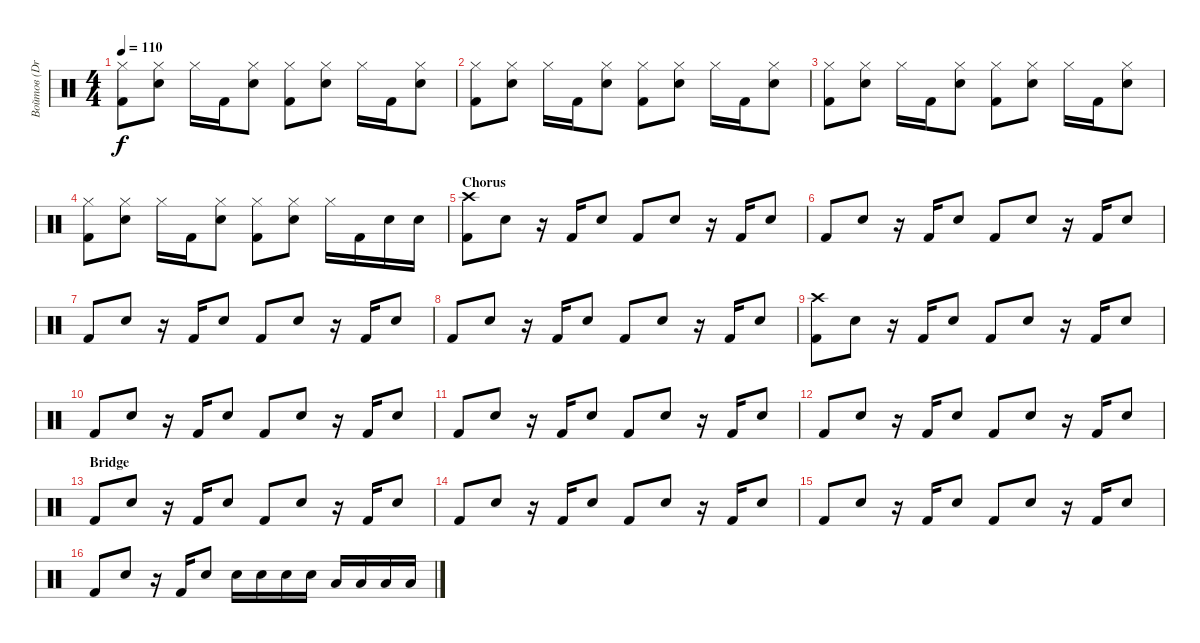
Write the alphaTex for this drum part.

\track ("Войтов (Drums)" "Войтов (Dr") {instrument percussion}
\staff {score}
\articulation defaults
\ts (4 4)
\tempo 110
\clef neutral
\ks c
("Kick (hit) 2" "Hi-Hat (closed)").8{dy f} ("Electric Snare (hit)" "Hi-Hat (closed)").8 "Hi-Hat (closed)".16 "Kick (hit) 2".16 ("Electric Snare (hit)" "Hi-Hat (closed)").8 ("Kick (hit) 2" "Hi-Hat (closed)").8 ("Electric Snare (hit)" "Hi-Hat (closed)").8 "Hi-Hat (closed)".16 "Kick (hit) 2".16 ("Electric Snare (hit)" "Hi-Hat (closed)").8 |
("Kick (hit) 2" "Hi-Hat (closed)").8 ("Electric Snare (hit)" "Hi-Hat (closed)").8 "Hi-Hat (closed)".16 "Kick (hit) 2".16 ("Electric Snare (hit)" "Hi-Hat (closed)").8 ("Kick (hit) 2" "Hi-Hat (closed)").8 ("Electric Snare (hit)" "Hi-Hat (closed)").8 "Hi-Hat (closed)".16 "Kick (hit) 2".16 ("Electric Snare (hit)" "Hi-Hat (closed)").8 |
("Kick (hit) 2" "Hi-Hat (closed)").8 ("Electric Snare (hit)" "Hi-Hat (closed)").8 "Hi-Hat (closed)".16 "Kick (hit) 2".16 ("Electric Snare (hit)" "Hi-Hat (closed)").8 ("Kick (hit) 2" "Hi-Hat (closed)").8 ("Electric Snare (hit)" "Hi-Hat (closed)").8 "Hi-Hat (closed)".16 "Kick (hit) 2".16 ("Electric Snare (hit)" "Hi-Hat (closed)").8 |
("Kick (hit) 2" "Hi-Hat (closed)").8 ("Electric Snare (hit)" "Hi-Hat (closed)").8 "Hi-Hat (closed)".16 "Kick (hit) 2".16 ("Electric Snare (hit)" "Hi-Hat (closed)").8 ("Kick (hit) 2" "Hi-Hat (closed)").8 ("Electric Snare (hit)" "Hi-Hat (closed)").8 "Hi-Hat (closed)".16 "Kick (hit) 2".16 "Electric Snare (hit)".16 "Electric Snare (hit)".16 |
\section ("" "Chorus")
("Kick (hit) 2" "Crash high (hit)").8 "Electric Snare (hit)".8 r.16 "Kick (hit) 2".16 "Electric Snare (hit)".8 "Kick (hit) 2".8 "Electric Snare (hit)".8 r.16 "Kick (hit) 2".16 "Electric Snare (hit)".8 |
"Kick (hit) 2".8 "Electric Snare (hit)".8 r.16 "Kick (hit) 2".16 "Electric Snare (hit)".8 "Kick (hit) 2".8 "Electric Snare (hit)".8 r.16 "Kick (hit) 2".16 "Electric Snare (hit)".8 |
"Kick (hit) 2".8 "Electric Snare (hit)".8 r.16 "Kick (hit) 2".16 "Electric Snare (hit)".8 "Kick (hit) 2".8 "Electric Snare (hit)".8 r.16 "Kick (hit) 2".16 "Electric Snare (hit)".8 |
"Kick (hit) 2".8 "Electric Snare (hit)".8 r.16 "Kick (hit) 2".16 "Electric Snare (hit)".8 "Kick (hit) 2".8 "Electric Snare (hit)".8 r.16 "Kick (hit) 2".16 "Electric Snare (hit)".8 |
("Kick (hit) 2" "Crash high (hit)").8 "Electric Snare (hit)".8 r.16 "Kick (hit) 2".16 "Electric Snare (hit)".8 "Kick (hit) 2".8 "Electric Snare (hit)".8 r.16 "Kick (hit) 2".16 "Electric Snare (hit)".8 |
"Kick (hit) 2".8 "Electric Snare (hit)".8 r.16 "Kick (hit) 2".16 "Electric Snare (hit)".8 "Kick (hit) 2".8 "Electric Snare (hit)".8 r.16 "Kick (hit) 2".16 "Electric Snare (hit)".8 |
"Kick (hit) 2".8 "Electric Snare (hit)".8 r.16 "Kick (hit) 2".16 "Electric Snare (hit)".8 "Kick (hit) 2".8 "Electric Snare (hit)".8 r.16 "Kick (hit) 2".16 "Electric Snare (hit)".8 |
"Kick (hit) 2".8 "Electric Snare (hit)".8 r.16 "Kick (hit) 2".16 "Electric Snare (hit)".8 "Kick (hit) 2".8 "Electric Snare (hit)".8 r.16 "Kick (hit) 2".16 "Electric Snare (hit)".8 |
\section ("" "Bridge")
"Kick (hit) 2".8 "Electric Snare (hit)".8 r.16 "Kick (hit) 2".16 "Electric Snare (hit)".8 "Kick (hit) 2".8 "Electric Snare (hit)".8 r.16 "Kick (hit) 2".16 "Electric Snare (hit)".8 |
"Kick (hit) 2".8 "Electric Snare (hit)".8 r.16 "Kick (hit) 2".16 "Electric Snare (hit)".8 "Kick (hit) 2".8 "Electric Snare (hit)".8 r.16 "Kick (hit) 2".16 "Electric Snare (hit)".8 |
"Kick (hit) 2".8 "Electric Snare (hit)".8 r.16 "Kick (hit) 2".16 "Electric Snare (hit)".8 "Kick (hit) 2".8 "Electric Snare (hit)".8 r.16 "Kick (hit) 2".16 "Electric Snare (hit)".8 |
"Kick (hit) 2".8 "Electric Snare (hit)".8 r.16 "Kick (hit) 2".16 "Electric Snare (hit)".8 "Electric Snare (hit)".16 "Electric Snare (hit)".16 "Electric Snare (hit)".16 "Electric Snare (hit)".16 "Low Tom (hit)".16 "Low Tom (hit)".16 "Low Tom (hit)".16 "Low Tom (hit)".16
